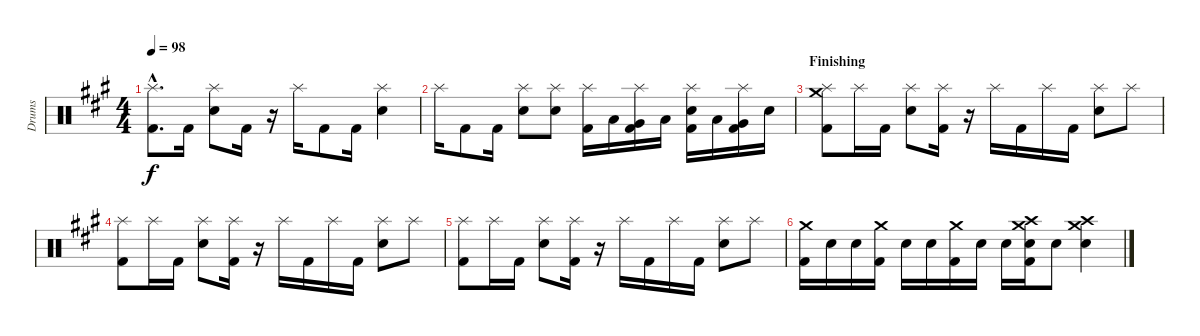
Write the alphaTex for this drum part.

\track ("Drums" "Drums") {instrument percussion}
\staff {score}
\articulation defaults
\ts (4 4)
\tempo 98
\clef neutral
\ks a
("Splash (hit)"{hac} "Kick (hit) 2"{hac}).8{d dy f} "Kick (hit) 2".16 ("Splash (hit)" "Snare (hit) 2").8 "Kick (hit) 2".16 r.16 "Splash (hit)".16 "Kick (hit) 2".8 "Kick (hit) 2".16 ("Splash (hit)" "Snare (hit) 2").4 |
"Splash (hit)".16 "Kick (hit) 2".8 "Kick (hit) 2".16 ("Splash (hit)" "Snare (hit) 2").8 ("Splash (hit)" "Snare (hit) 2").8 ("Splash (hit)" "Kick (hit) 2").16 "Low Tom (hit)".16 ("Splash (hit)" "Very Low Tom (hit)" "Kick (hit) 2").16 "Low Floor Tom (hit)".16 ("Splash (hit)" "Snare (hit) 2" "Kick (hit) 2").16 "Low Tom (hit)".16 ("Splash (hit)" "Very Low Tom (hit)" "Kick (hit) 2").16 "Snare (hit) 2".16 |
\section ("" "Finishing")
("Splash (hit)" "Crash medium (hit)" "Kick (hit) 2").8 "Splash (hit)".16 "Kick (hit) 2".16 ("Splash (hit)" "Snare (hit) 2").8 ("Splash (hit)" "Kick (hit) 2").16 r.16 "Splash (hit)".16 "Kick (hit) 2".16 "Splash (hit)".16 "Kick (hit) 2".16 ("Splash (hit)" "Snare (hit) 2").8 "Splash (hit)".8 |
("Splash (hit)" "Kick (hit) 2").8 "Splash (hit)".16 "Kick (hit) 2".16 ("Splash (hit)" "Snare (hit) 2").8 ("Splash (hit)" "Kick (hit) 2").16 r.16 "Splash (hit)".16 "Kick (hit) 2".16 "Splash (hit)".16 "Kick (hit) 2".16 ("Splash (hit)" "Snare (hit) 2").8 "Splash (hit)".8 |
("Splash (hit)" "Kick (hit) 2").8 "Splash (hit)".16 "Kick (hit) 2".16 ("Splash (hit)" "Snare (hit) 2").8 ("Splash (hit)" "Kick (hit) 2").16 r.16 "Splash (hit)".16 "Kick (hit) 2".16 "Splash (hit)".16 "Kick (hit) 2".16 ("Splash (hit)" "Snare (hit) 2").8 "Splash (hit)".8 |
("Crash medium (hit)" "Kick (hit) 2").16 "Snare (hit) 2".16 "Snare (hit) 2".16 ("Crash medium (hit)" "Kick (hit) 2").16 "Snare (hit) 2".16 "Snare (hit) 2".16 ("Crash medium (hit)" "Kick (hit) 2").16 "Snare (hit) 2".16 "Snare (hit) 2".16 ("Crash high (hit)" "Snare (hit) 2" "Crash medium (hit)" "Kick (hit) 2").16 "Snare (hit) 2".8 ("Crash high (hit)" "Snare (hit) 2" "Crash medium (hit)").4
